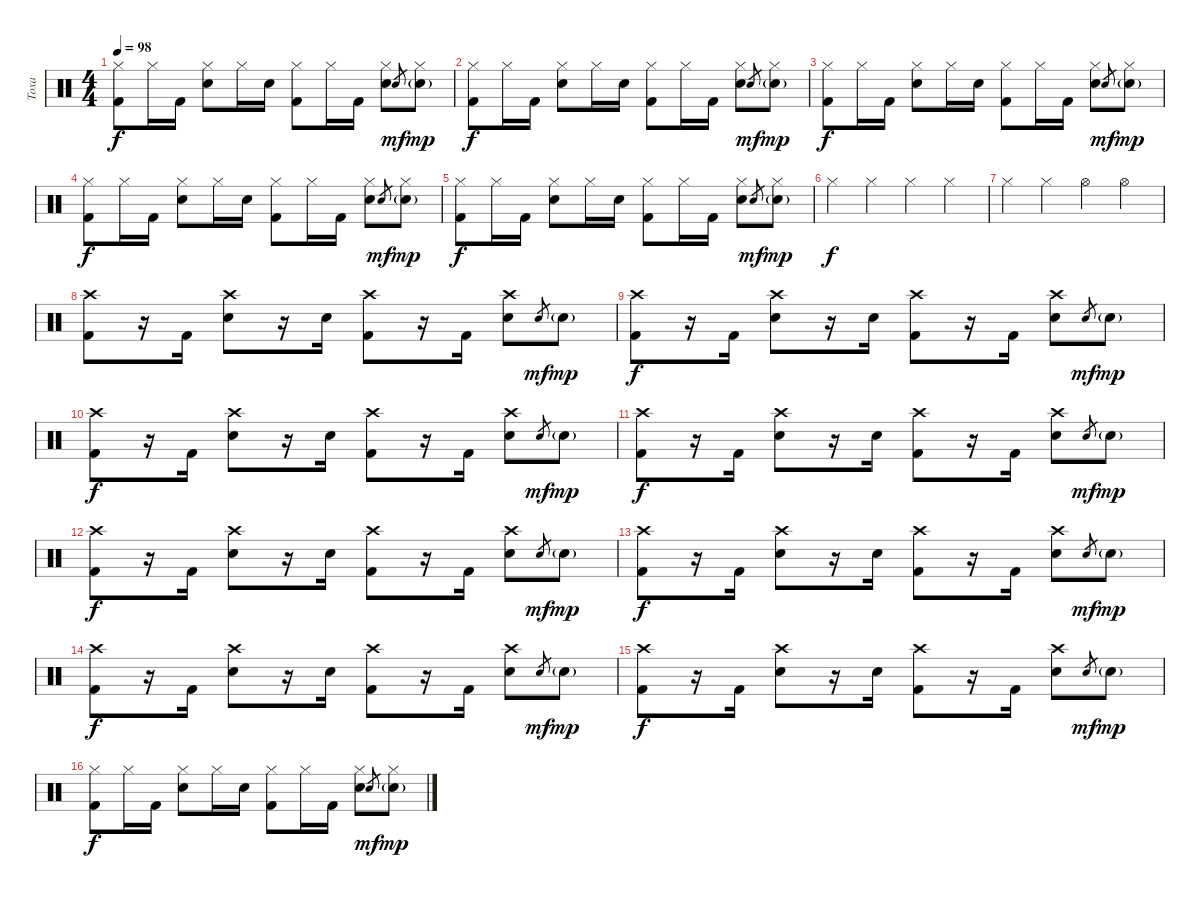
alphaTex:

\track ("Toxa" "Toxa") {instrument percussion}
\staff {score}
\articulation defaults
\ts (4 4)
\tempo 98
\clef neutral
\ks c
("Hi-Hat (closed)" "Kick (hit) 2").8{dy f} "Hi-Hat (closed)".16 "Kick (hit) 2".16 ("Hi-Hat (closed)" "Electric Snare (hit)").8 "Hi-Hat (closed)".16 "Electric Snare (hit)".16 ("Hi-Hat (closed)" "Kick (hit) 2").8 "Hi-Hat (closed)".16 "Kick (hit) 2".16 ("Hi-Hat (closed)" "Electric Snare (hit)").8 "Electric Snare (hit)".8{gr dy mf} ("Hi-Hat (closed)" "Electric Snare (hit)"{g}).8{dy mp} |
("Hi-Hat (closed)" "Kick (hit) 2").8{dy f} "Hi-Hat (closed)".16 "Kick (hit) 2".16 ("Hi-Hat (closed)" "Electric Snare (hit)").8 "Hi-Hat (closed)".16 "Electric Snare (hit)".16 ("Hi-Hat (closed)" "Kick (hit) 2").8 "Hi-Hat (closed)".16 "Kick (hit) 2".16 ("Hi-Hat (closed)" "Electric Snare (hit)").8 "Electric Snare (hit)".8{gr dy mf} ("Hi-Hat (closed)" "Electric Snare (hit)"{g}).8{dy mp} |
("Hi-Hat (closed)" "Kick (hit) 2").8{dy f} "Hi-Hat (closed)".16 "Kick (hit) 2".16 ("Hi-Hat (closed)" "Electric Snare (hit)").8 "Hi-Hat (closed)".16 "Electric Snare (hit)".16 ("Hi-Hat (closed)" "Kick (hit) 2").8 "Hi-Hat (closed)".16 "Kick (hit) 2".16 ("Hi-Hat (closed)" "Electric Snare (hit)").8 "Electric Snare (hit)".8{gr dy mf} ("Hi-Hat (closed)" "Electric Snare (hit)"{g}).8{dy mp} |
("Hi-Hat (closed)" "Kick (hit) 2").8{dy f} "Hi-Hat (closed)".16 "Kick (hit) 2".16 ("Hi-Hat (closed)" "Electric Snare (hit)").8 "Hi-Hat (closed)".16 "Electric Snare (hit)".16 ("Hi-Hat (closed)" "Kick (hit) 2").8 "Hi-Hat (closed)".16 "Kick (hit) 2".16 ("Hi-Hat (closed)" "Electric Snare (hit)").8 "Electric Snare (hit)".8{gr dy mf} ("Hi-Hat (closed)" "Electric Snare (hit)"{g}).8{dy mp} |
("Hi-Hat (closed)" "Kick (hit) 2").8{dy f} "Hi-Hat (closed)".16 "Kick (hit) 2".16 ("Hi-Hat (closed)" "Electric Snare (hit)").8 "Hi-Hat (closed)".16 "Electric Snare (hit)".16 ("Hi-Hat (closed)" "Kick (hit) 2").8 "Hi-Hat (closed)".16 "Kick (hit) 2".16 ("Hi-Hat (closed)" "Electric Snare (hit)").8 "Electric Snare (hit)".8{gr dy mf} ("Hi-Hat (closed)" "Electric Snare (hit)"{g}).8{dy mp} |
"Hi-Hat (closed)".4{dy f} "Hi-Hat (closed)".4 "Hi-Hat (closed)".4 "Hi-Hat (closed)".4 |
"Hi-Hat (closed)".4 "Hi-Hat (closed)".4 "Hi-Hat (open)".4 "Hi-Hat (open)".4 |
("Crash high (hit)" "Kick (hit) 2").8 r.16 "Kick (hit) 2".16 ("Crash high (hit)" "Electric Snare (hit)").8 r.16 "Electric Snare (hit)".16 ("Crash high (hit)" "Kick (hit) 2").8 r.16 "Kick (hit) 2".16 ("Crash high (hit)" "Electric Snare (hit)").8 "Electric Snare (hit)".8{gr dy mf} "Electric Snare (hit)"{g}.8{dy mp} |
("Crash high (hit)" "Kick (hit) 2").8{dy f} r.16 "Kick (hit) 2".16 ("Crash high (hit)" "Electric Snare (hit)").8 r.16 "Electric Snare (hit)".16 ("Crash high (hit)" "Kick (hit) 2").8 r.16 "Kick (hit) 2".16 ("Crash high (hit)" "Electric Snare (hit)").8 "Electric Snare (hit)".8{gr dy mf} "Electric Snare (hit)"{g}.8{dy mp} |
("Crash high (hit)" "Kick (hit) 2").8{dy f} r.16 "Kick (hit) 2".16 ("Crash high (hit)" "Electric Snare (hit)").8 r.16 "Electric Snare (hit)".16 ("Crash high (hit)" "Kick (hit) 2").8 r.16 "Kick (hit) 2".16 ("Crash high (hit)" "Electric Snare (hit)").8 "Electric Snare (hit)".8{gr dy mf} "Electric Snare (hit)"{g}.8{dy mp} |
("Crash high (hit)" "Kick (hit) 2").8{dy f} r.16 "Kick (hit) 2".16 ("Crash high (hit)" "Electric Snare (hit)").8 r.16 "Electric Snare (hit)".16 ("Crash high (hit)" "Kick (hit) 2").8 r.16 "Kick (hit) 2".16 ("Crash high (hit)" "Electric Snare (hit)").8 "Electric Snare (hit)".8{gr dy mf} "Electric Snare (hit)"{g}.8{dy mp} |
("Crash high (hit)" "Kick (hit) 2").8{dy f} r.16 "Kick (hit) 2".16 ("Crash high (hit)" "Electric Snare (hit)").8 r.16 "Electric Snare (hit)".16 ("Crash high (hit)" "Kick (hit) 2").8 r.16 "Kick (hit) 2".16 ("Crash high (hit)" "Electric Snare (hit)").8 "Electric Snare (hit)".8{gr dy mf} "Electric Snare (hit)"{g}.8{dy mp} |
("Crash high (hit)" "Kick (hit) 2").8{dy f} r.16 "Kick (hit) 2".16 ("Crash high (hit)" "Electric Snare (hit)").8 r.16 "Electric Snare (hit)".16 ("Crash high (hit)" "Kick (hit) 2").8 r.16 "Kick (hit) 2".16 ("Crash high (hit)" "Electric Snare (hit)").8 "Electric Snare (hit)".8{gr dy mf} "Electric Snare (hit)"{g}.8{dy mp} |
("Crash high (hit)" "Kick (hit) 2").8{dy f} r.16 "Kick (hit) 2".16 ("Crash high (hit)" "Electric Snare (hit)").8 r.16 "Electric Snare (hit)".16 ("Crash high (hit)" "Kick (hit) 2").8 r.16 "Kick (hit) 2".16 ("Crash high (hit)" "Electric Snare (hit)").8 "Electric Snare (hit)".8{gr dy mf} "Electric Snare (hit)"{g}.8{dy mp} |
("Crash high (hit)" "Kick (hit) 2").8{dy f} r.16 "Kick (hit) 2".16 ("Crash high (hit)" "Electric Snare (hit)").8 r.16 "Electric Snare (hit)".16 ("Crash high (hit)" "Kick (hit) 2").8 r.16 "Kick (hit) 2".16 ("Crash high (hit)" "Electric Snare (hit)").8 "Electric Snare (hit)".8{gr dy mf} "Electric Snare (hit)"{g}.8{dy mp} |
("Hi-Hat (closed)" "Kick (hit) 2").8{dy f} "Hi-Hat (closed)".16 "Kick (hit) 2".16 ("Hi-Hat (closed)" "Electric Snare (hit)").8 "Hi-Hat (closed)".16 "Electric Snare (hit)".16 ("Hi-Hat (closed)" "Kick (hit) 2").8 "Hi-Hat (closed)".16 "Kick (hit) 2".16 ("Hi-Hat (closed)" "Electric Snare (hit)").8 "Electric Snare (hit)".8{gr dy mf} ("Hi-Hat (closed)" "Electric Snare (hit)"{g}).8{dy mp}
